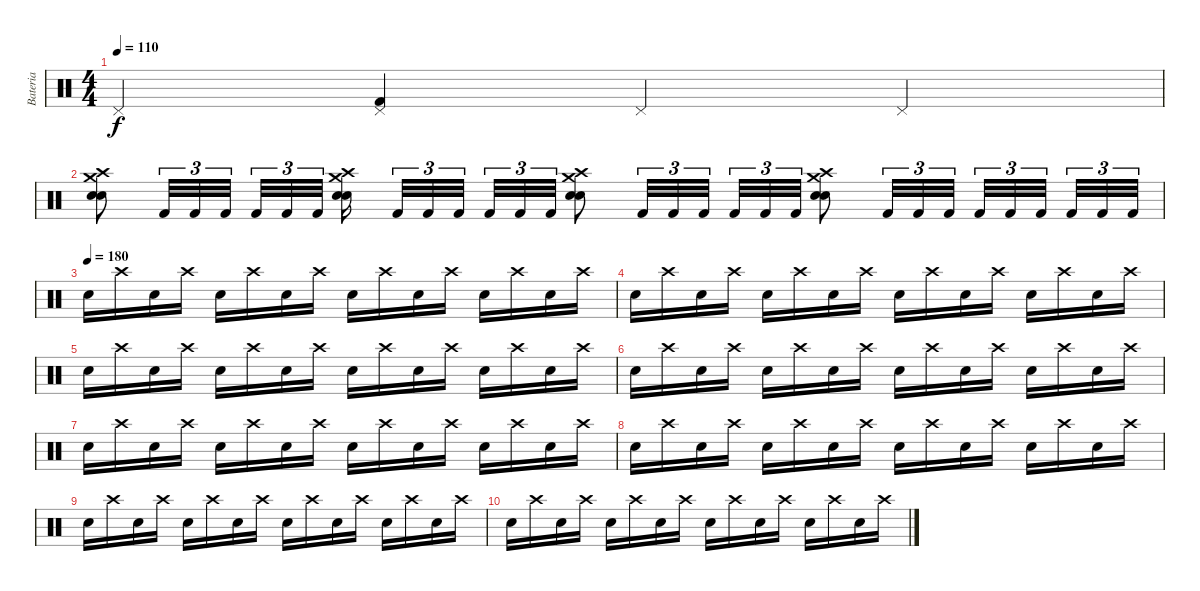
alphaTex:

\track ("Bateria" "Bateria") {instrument percussion}
\staff {score}
\articulation defaults
\ts (4 4)
\tempo 110
\clef neutral
\ks c "Pedal Hi-Hat (hit)".4{dy f}
("Pedal Hi-Hat (hit)" "Kick (hit) 2").4 "Pedal Hi-Hat (hit)".4 "Pedal Hi-Hat (hit)".4 |
("Electric Snare (hit)" "Snare (hit) 2" "Crash high (hit)" "Crash medium (hit)").8 "Kick (hit) 2".32{tu (3 2)} "Kick (hit) 2".32{tu (3 2)} "Kick (hit) 2".32{tu (3 2)} "Kick (hit) 2".32{tu (3 2)} "Kick (hit) 2".32{tu (3 2)} "Kick (hit) 2".32{tu (3 2)} ("Electric Snare (hit)" "Snare (hit) 2" "Crash high (hit)" "Crash medium (hit)").16 "Kick (hit) 2".32{tu (3 2)} "Kick (hit) 2".32{tu (3 2)} "Kick (hit) 2".32{tu (3 2)} "Kick (hit) 2".32{tu (3 2)} "Kick (hit) 2".32{tu (3 2)} "Kick (hit) 2".32{tu (3 2)} ("Electric Snare (hit)" "Snare (hit) 2" "Crash high (hit)" "Crash medium (hit)").8 "Kick (hit) 2".32{tu (3 2)} "Kick (hit) 2".32{tu (3 2)} "Kick (hit) 2".32{tu (3 2)} "Kick (hit) 2".32{tu (3 2)} "Kick (hit) 2".32{tu (3 2)} "Kick (hit) 2".32{tu (3 2)} ("Electric Snare (hit)" "Snare (hit) 2" "Crash high (hit)" "Crash medium (hit)").8 "Kick (hit) 2".32{tu (3 2)} "Kick (hit) 2".32{tu (3 2)} "Kick (hit) 2".32{tu (3 2)} "Kick (hit) 2".32{tu (3 2)} "Kick (hit) 2".32{tu (3 2)} "Kick (hit) 2".32{tu (3 2)} "Kick (hit) 2".32{tu (3 2)} "Kick (hit) 2".32{tu (3 2)} "Kick (hit) 2".32{tu (3 2)} |
\tempo (180)
"Electric Snare (hit)".16 "Crash high (hit)".16 "Electric Snare (hit)".16 "Crash high (hit)".16 "Electric Snare (hit)".16 "Crash high (hit)".16 "Electric Snare (hit)".16 "Crash high (hit)".16 "Electric Snare (hit)".16 "Crash high (hit)".16 "Electric Snare (hit)".16 "Crash high (hit)".16 "Electric Snare (hit)".16 "Crash high (hit)".16 "Electric Snare (hit)".16 "Crash high (hit)".16 |
"Electric Snare (hit)".16 "Crash high (hit)".16 "Electric Snare (hit)".16 "Crash high (hit)".16 "Electric Snare (hit)".16 "Crash high (hit)".16 "Electric Snare (hit)".16 "Crash high (hit)".16 "Electric Snare (hit)".16 "Crash high (hit)".16 "Electric Snare (hit)".16 "Crash high (hit)".16 "Electric Snare (hit)".16 "Crash high (hit)".16 "Electric Snare (hit)".16 "Crash high (hit)".16 |
"Electric Snare (hit)".16 "Crash high (hit)".16 "Electric Snare (hit)".16 "Crash high (hit)".16 "Electric Snare (hit)".16 "Crash high (hit)".16 "Electric Snare (hit)".16 "Crash high (hit)".16 "Electric Snare (hit)".16 "Crash high (hit)".16 "Electric Snare (hit)".16 "Crash high (hit)".16 "Electric Snare (hit)".16 "Crash high (hit)".16 "Electric Snare (hit)".16 "Crash high (hit)".16 |
"Electric Snare (hit)".16 "Crash high (hit)".16 "Electric Snare (hit)".16 "Crash high (hit)".16 "Electric Snare (hit)".16 "Crash high (hit)".16 "Electric Snare (hit)".16 "Crash high (hit)".16 "Electric Snare (hit)".16 "Crash high (hit)".16 "Electric Snare (hit)".16 "Crash high (hit)".16 "Electric Snare (hit)".16 "Crash high (hit)".16 "Electric Snare (hit)".16 "Crash high (hit)".16 |
"Electric Snare (hit)".16 "Crash high (hit)".16 "Electric Snare (hit)".16 "Crash high (hit)".16 "Electric Snare (hit)".16 "Crash high (hit)".16 "Electric Snare (hit)".16 "Crash high (hit)".16 "Electric Snare (hit)".16 "Crash high (hit)".16 "Electric Snare (hit)".16 "Crash high (hit)".16 "Electric Snare (hit)".16 "Crash high (hit)".16 "Electric Snare (hit)".16 "Crash high (hit)".16 |
"Electric Snare (hit)".16 "Crash high (hit)".16 "Electric Snare (hit)".16 "Crash high (hit)".16 "Electric Snare (hit)".16 "Crash high (hit)".16 "Electric Snare (hit)".16 "Crash high (hit)".16 "Electric Snare (hit)".16 "Crash high (hit)".16 "Electric Snare (hit)".16 "Crash high (hit)".16 "Electric Snare (hit)".16 "Crash high (hit)".16 "Electric Snare (hit)".16 "Crash high (hit)".16 |
"Electric Snare (hit)".16 "Crash high (hit)".16 "Electric Snare (hit)".16 "Crash high (hit)".16 "Electric Snare (hit)".16 "Crash high (hit)".16 "Electric Snare (hit)".16 "Crash high (hit)".16 "Electric Snare (hit)".16 "Crash high (hit)".16 "Electric Snare (hit)".16 "Crash high (hit)".16 "Electric Snare (hit)".16 "Crash high (hit)".16 "Electric Snare (hit)".16 "Crash high (hit)".16 |
"Electric Snare (hit)".16 "Crash high (hit)".16 "Electric Snare (hit)".16 "Crash high (hit)".16 "Electric Snare (hit)".16 "Crash high (hit)".16 "Electric Snare (hit)".16 "Crash high (hit)".16 "Electric Snare (hit)".16 "Crash high (hit)".16 "Electric Snare (hit)".16 "Crash high (hit)".16 "Electric Snare (hit)".16 "Crash high (hit)".16 "Electric Snare (hit)".16 "Crash high (hit)".16
